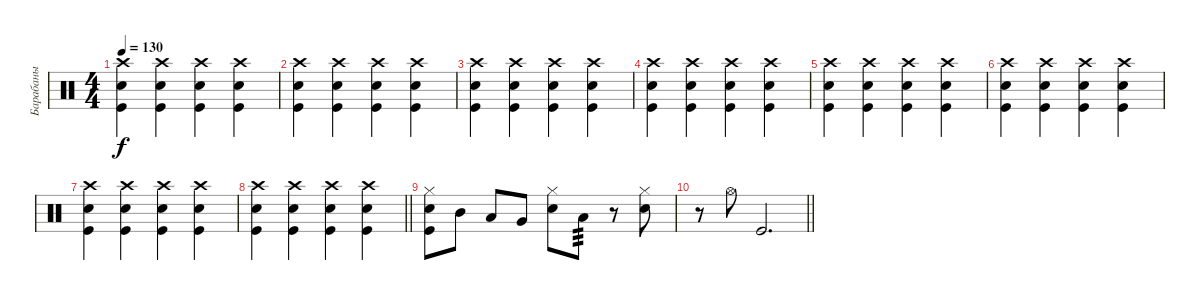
\track ("Барабаны" "Барабаны") {instrument percussion}
\staff {score}
\articulation defaults
\ts (4 4)
\tempo 130
\clef neutral
\ks c
("Crash high (hit)" "Electric Snare (hit)" "Kick (hit)").4{dy f} ("Crash high (hit)" "Electric Snare (hit)" "Kick (hit)").4 ("Crash high (hit)" "Electric Snare (hit)" "Kick (hit)").4 ("Crash high (hit)" "Electric Snare (hit)" "Kick (hit)").4 |
("Crash high (hit)" "Electric Snare (hit)" "Kick (hit)").4 ("Crash high (hit)" "Electric Snare (hit)" "Kick (hit)").4 ("Crash high (hit)" "Electric Snare (hit)" "Kick (hit)").4 ("Crash high (hit)" "Electric Snare (hit)" "Kick (hit)").4 |
("Crash high (hit)" "Electric Snare (hit)" "Kick (hit)").4 ("Crash high (hit)" "Electric Snare (hit)" "Kick (hit)").4 ("Crash high (hit)" "Electric Snare (hit)" "Kick (hit)").4 ("Crash high (hit)" "Electric Snare (hit)" "Kick (hit)").4 |
("Crash high (hit)" "Electric Snare (hit)" "Kick (hit)").4 ("Crash high (hit)" "Electric Snare (hit)" "Kick (hit)").4 ("Crash high (hit)" "Electric Snare (hit)" "Kick (hit)").4 ("Crash high (hit)" "Electric Snare (hit)" "Kick (hit)").4 |
("Crash high (hit)" "Electric Snare (hit)" "Kick (hit)").4 ("Crash high (hit)" "Electric Snare (hit)" "Kick (hit)").4 ("Crash high (hit)" "Electric Snare (hit)" "Kick (hit)").4 ("Crash high (hit)" "Electric Snare (hit)" "Kick (hit)").4 |
("Crash high (hit)" "Electric Snare (hit)" "Kick (hit)").4 ("Crash high (hit)" "Electric Snare (hit)" "Kick (hit)").4 ("Crash high (hit)" "Electric Snare (hit)" "Kick (hit)").4 ("Crash high (hit)" "Electric Snare (hit)" "Kick (hit)").4 |
("Crash high (hit)" "Electric Snare (hit)" "Kick (hit)").4 ("Crash high (hit)" "Electric Snare (hit)" "Kick (hit)").4 ("Crash high (hit)" "Electric Snare (hit)" "Kick (hit)").4 ("Crash high (hit)" "Electric Snare (hit)" "Kick (hit)").4 |
\barLineRight lightlight
("Crash high (hit)" "Electric Snare (hit)" "Kick (hit)").4 ("Crash high (hit)" "Electric Snare (hit)" "Kick (hit)").4 ("Crash high (hit)" "Electric Snare (hit)" "Kick (hit)").4 ("Crash high (hit)" "Electric Snare (hit)" "Kick (hit)").4 |
("Hi-Hat (closed)" "Electric Snare (hit)" "Kick (hit)").8 "Mid Tom (hit)".8 "Low Tom (hit)".8 "Very Low Tom (hit)".8 ("Hi-Hat (closed)" "Snare (hit) 2").8 "Low Tom (hit)".8{tp 3} r.8 ("Hi-Hat (closed)" "Snare (hit) 2").8 |
\barLineRight lightlight
r.8 "Hi-Hat (open)".8 "Kick (hit)".2{d}
